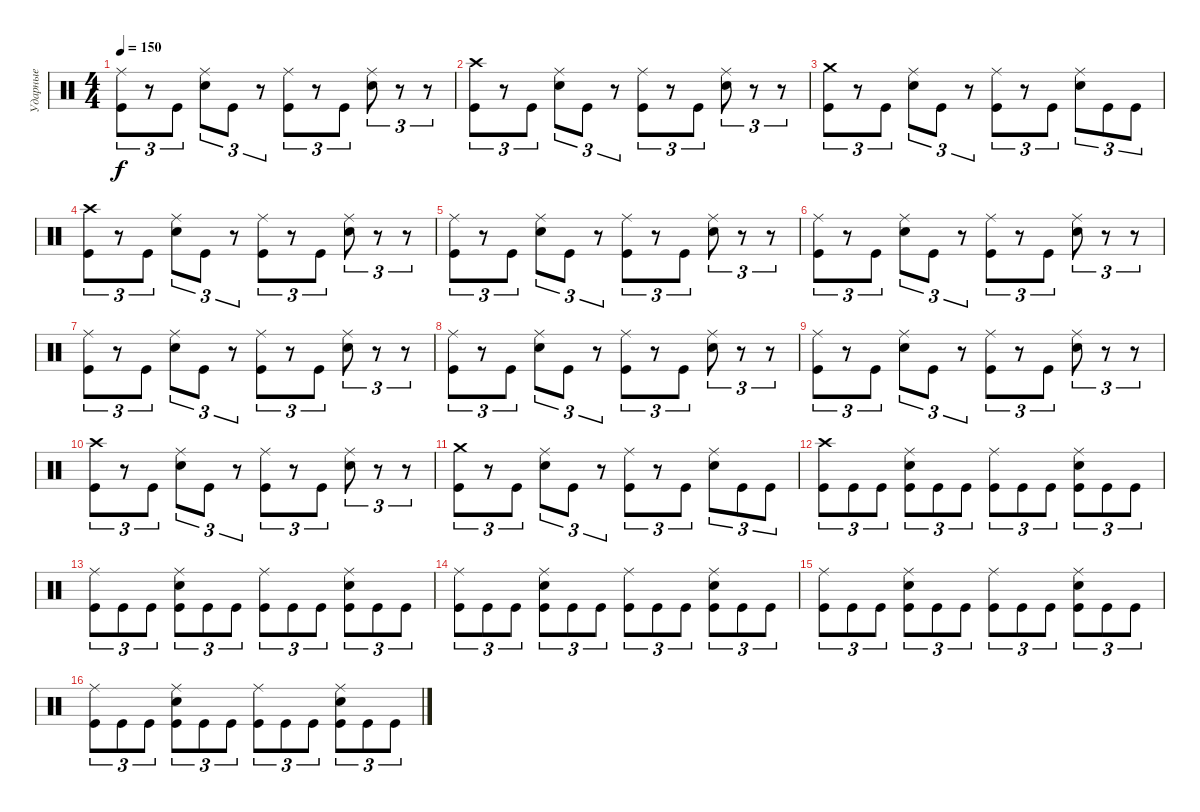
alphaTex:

\track ("Ударные" "Ударные") {instrument percussion}
\staff {score}
\articulation defaults
\ts (4 4)
\tempo 150
\clef neutral
\ks c
("Ride (middle)" "Kick (hit)").8{tu (3 2) dy f} r.8{tu (3 2)} "Kick (hit)".8{tu (3 2)} ("Ride (middle)" "Snare (hit) 2").8{tu (3 2)} "Kick (hit)".8{tu (3 2)} r.8{tu (3 2)} ("Ride (middle)" "Kick (hit)").8{tu (3 2)} r.8{tu (3 2)} "Kick (hit)".8{tu (3 2)} ("Ride (middle)" "Snare (hit) 2").8{tu (3 2)} r.8{tu (3 2)} r.8{tu (3 2)} |
("Crash high (hit)" "Kick (hit)").8{tu (3 2)} r.8{tu (3 2)} "Kick (hit)".8{tu (3 2)} ("Ride (middle)" "Snare (hit) 2").8{tu (3 2)} "Kick (hit)".8{tu (3 2)} r.8{tu (3 2)} ("Ride (middle)" "Kick (hit)").8{tu (3 2)} r.8{tu (3 2)} "Kick (hit)".8{tu (3 2)} ("Ride (middle)" "Snare (hit) 2").8{tu (3 2)} r.8{tu (3 2)} r.8{tu (3 2)} |
("Crash medium (hit)" "Kick (hit)").8{tu (3 2)} r.8{tu (3 2)} "Kick (hit)".8{tu (3 2)} ("Ride (middle)" "Snare (hit) 2").8{tu (3 2)} "Kick (hit)".8{tu (3 2)} r.8{tu (3 2)} ("Ride (middle)" "Kick (hit)").8{tu (3 2)} r.8{tu (3 2)} "Kick (hit)".8{tu (3 2)} ("Ride (middle)" "Snare (hit) 2").8{tu (3 2)} "Kick (hit)".8{tu (3 2)} "Kick (hit)".8{tu (3 2)} |
("Crash high (hit)" "Kick (hit)").8{tu (3 2)} r.8{tu (3 2)} "Kick (hit)".8{tu (3 2)} ("Ride (middle)" "Snare (hit) 2").8{tu (3 2)} "Kick (hit)".8{tu (3 2)} r.8{tu (3 2)} ("Ride (middle)" "Kick (hit)").8{tu (3 2)} r.8{tu (3 2)} "Kick (hit)".8{tu (3 2)} ("Ride (middle)" "Snare (hit) 2").8{tu (3 2)} r.8{tu (3 2)} r.8{tu (3 2)} |
("Ride (middle)" "Kick (hit)").8{tu (3 2)} r.8{tu (3 2)} "Kick (hit)".8{tu (3 2)} ("Ride (middle)" "Snare (hit) 2").8{tu (3 2)} "Kick (hit)".8{tu (3 2)} r.8{tu (3 2)} ("Ride (middle)" "Kick (hit)").8{tu (3 2)} r.8{tu (3 2)} "Kick (hit)".8{tu (3 2)} ("Ride (middle)" "Snare (hit) 2").8{tu (3 2)} r.8{tu (3 2)} r.8{tu (3 2)} |
("Ride (middle)" "Kick (hit)").8{tu (3 2)} r.8{tu (3 2)} "Kick (hit)".8{tu (3 2)} ("Ride (middle)" "Snare (hit) 2").8{tu (3 2)} "Kick (hit)".8{tu (3 2)} r.8{tu (3 2)} ("Ride (middle)" "Kick (hit)").8{tu (3 2)} r.8{tu (3 2)} "Kick (hit)".8{tu (3 2)} ("Ride (middle)" "Snare (hit) 2").8{tu (3 2)} r.8{tu (3 2)} r.8{tu (3 2)} |
("Ride (middle)" "Kick (hit)").8{tu (3 2)} r.8{tu (3 2)} "Kick (hit)".8{tu (3 2)} ("Ride (middle)" "Snare (hit) 2").8{tu (3 2)} "Kick (hit)".8{tu (3 2)} r.8{tu (3 2)} ("Ride (middle)" "Kick (hit)").8{tu (3 2)} r.8{tu (3 2)} "Kick (hit)".8{tu (3 2)} ("Ride (middle)" "Snare (hit) 2").8{tu (3 2)} r.8{tu (3 2)} r.8{tu (3 2)} |
("Ride (middle)" "Kick (hit)").8{tu (3 2)} r.8{tu (3 2)} "Kick (hit)".8{tu (3 2)} ("Ride (middle)" "Snare (hit) 2").8{tu (3 2)} "Kick (hit)".8{tu (3 2)} r.8{tu (3 2)} ("Ride (middle)" "Kick (hit)").8{tu (3 2)} r.8{tu (3 2)} "Kick (hit)".8{tu (3 2)} ("Ride (middle)" "Snare (hit) 2").8{tu (3 2)} r.8{tu (3 2)} r.8{tu (3 2)} |
("Ride (middle)" "Kick (hit)").8{tu (3 2)} r.8{tu (3 2)} "Kick (hit)".8{tu (3 2)} ("Ride (middle)" "Snare (hit) 2").8{tu (3 2)} "Kick (hit)".8{tu (3 2)} r.8{tu (3 2)} ("Ride (middle)" "Kick (hit)").8{tu (3 2)} r.8{tu (3 2)} "Kick (hit)".8{tu (3 2)} ("Ride (middle)" "Snare (hit) 2").8{tu (3 2)} r.8{tu (3 2)} r.8{tu (3 2)} |
("Crash high (hit)" "Kick (hit)").8{tu (3 2)} r.8{tu (3 2)} "Kick (hit)".8{tu (3 2)} ("Ride (middle)" "Snare (hit) 2").8{tu (3 2)} "Kick (hit)".8{tu (3 2)} r.8{tu (3 2)} ("Ride (middle)" "Kick (hit)").8{tu (3 2)} r.8{tu (3 2)} "Kick (hit)".8{tu (3 2)} ("Ride (middle)" "Snare (hit) 2").8{tu (3 2)} r.8{tu (3 2)} r.8{tu (3 2)} |
("Crash medium (hit)" "Kick (hit)").8{tu (3 2)} r.8{tu (3 2)} "Kick (hit)".8{tu (3 2)} ("Ride (middle)" "Snare (hit) 2").8{tu (3 2)} "Kick (hit)".8{tu (3 2)} r.8{tu (3 2)} ("Ride (middle)" "Kick (hit)").8{tu (3 2)} r.8{tu (3 2)} "Kick (hit)".8{tu (3 2)} ("Ride (middle)" "Snare (hit) 2").8{tu (3 2)} "Kick (hit)".8{tu (3 2)} "Kick (hit)".8{tu (3 2)} |
("Crash high (hit)" "Kick (hit)").8{tu (3 2)} "Kick (hit)".8{tu (3 2)} "Kick (hit)".8{tu (3 2)} ("Ride (middle)" "Snare (hit) 2" "Kick (hit)").8{tu (3 2)} "Kick (hit)".8{tu (3 2)} "Kick (hit)".8{tu (3 2)} ("Ride (middle)" "Kick (hit)").8{tu (3 2)} "Kick (hit)".8{tu (3 2)} "Kick (hit)".8{tu (3 2)} ("Ride (middle)" "Snare (hit) 2" "Kick (hit)").8{tu (3 2)} "Kick (hit)".8{tu (3 2)} "Kick (hit)".8{tu (3 2)} |
("Ride (middle)" "Kick (hit)").8{tu (3 2)} "Kick (hit)".8{tu (3 2)} "Kick (hit)".8{tu (3 2)} ("Ride (middle)" "Snare (hit) 2" "Kick (hit)").8{tu (3 2)} "Kick (hit)".8{tu (3 2)} "Kick (hit)".8{tu (3 2)} ("Ride (middle)" "Kick (hit)").8{tu (3 2)} "Kick (hit)".8{tu (3 2)} "Kick (hit)".8{tu (3 2)} ("Ride (middle)" "Snare (hit) 2" "Kick (hit)").8{tu (3 2)} "Kick (hit)".8{tu (3 2)} "Kick (hit)".8{tu (3 2)} |
("Ride (middle)" "Kick (hit)").8{tu (3 2)} "Kick (hit)".8{tu (3 2)} "Kick (hit)".8{tu (3 2)} ("Ride (middle)" "Snare (hit) 2" "Kick (hit)").8{tu (3 2)} "Kick (hit)".8{tu (3 2)} "Kick (hit)".8{tu (3 2)} ("Ride (middle)" "Kick (hit)").8{tu (3 2)} "Kick (hit)".8{tu (3 2)} "Kick (hit)".8{tu (3 2)} ("Ride (middle)" "Snare (hit) 2" "Kick (hit)").8{tu (3 2)} "Kick (hit)".8{tu (3 2)} "Kick (hit)".8{tu (3 2)} |
("Ride (middle)" "Kick (hit)").8{tu (3 2)} "Kick (hit)".8{tu (3 2)} "Kick (hit)".8{tu (3 2)} ("Ride (middle)" "Snare (hit) 2" "Kick (hit)").8{tu (3 2)} "Kick (hit)".8{tu (3 2)} "Kick (hit)".8{tu (3 2)} ("Ride (middle)" "Kick (hit)").8{tu (3 2)} "Kick (hit)".8{tu (3 2)} "Kick (hit)".8{tu (3 2)} ("Ride (middle)" "Snare (hit) 2" "Kick (hit)").8{tu (3 2)} "Kick (hit)".8{tu (3 2)} "Kick (hit)".8{tu (3 2)} |
("Ride (middle)" "Kick (hit)").8{tu (3 2)} "Kick (hit)".8{tu (3 2)} "Kick (hit)".8{tu (3 2)} ("Ride (middle)" "Snare (hit) 2" "Kick (hit)").8{tu (3 2)} "Kick (hit)".8{tu (3 2)} "Kick (hit)".8{tu (3 2)} ("Ride (middle)" "Kick (hit)").8{tu (3 2)} "Kick (hit)".8{tu (3 2)} "Kick (hit)".8{tu (3 2)} ("Ride (middle)" "Snare (hit) 2" "Kick (hit)").8{tu (3 2)} "Kick (hit)".8{tu (3 2)} "Kick (hit)".8{tu (3 2)}
